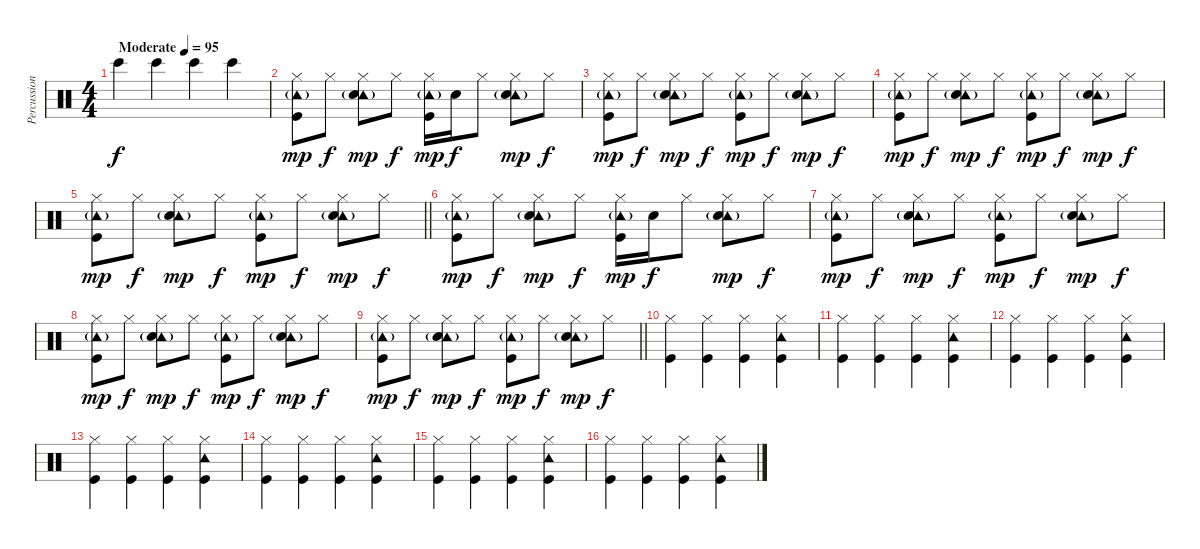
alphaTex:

\track ("Percussion" "Percussion") {instrument percussion}
\staff {score}
\articulation defaults
\ts (4 4)
\tempo (95 "Moderate")
\clef neutral
\ks c "Bongo High (hit)".4{dy f} "Bongo High (hit)".4 "Bongo High (hit)".4 "Bongo High (hit)".4
|
("Hi-Hat (closed)" "Tambourine (hit)"{g} "Kick (hit)").8{dy mp} "Hi-Hat (closed)".8{dy f} ("Hi-Hat (closed)" "Tambourine (hit)"{g} "Electric Snare (hit)").8{dy mp} "Hi-Hat (closed)".8{dy f} ("Hi-Hat (closed)" "Tambourine (hit)"{g} "Kick (hit)").16{dy mp} "Electric Snare (hit)".16{dy f} "Hi-Hat (closed)".8 ("Hi-Hat (closed)" "Tambourine (hit)"{g} "Electric Snare (hit)").8{dy mp} "Hi-Hat (closed)".8{dy f} |
("Hi-Hat (closed)" "Tambourine (hit)"{g} "Kick (hit)").8{dy mp} "Hi-Hat (closed)".8{dy f} ("Hi-Hat (closed)" "Tambourine (hit)"{g} "Electric Snare (hit)").8{dy mp} "Hi-Hat (closed)".8{dy f} ("Hi-Hat (closed)" "Tambourine (hit)"{g} "Kick (hit)").8{dy mp} "Hi-Hat (closed)".8{dy f} ("Hi-Hat (closed)" "Tambourine (hit)"{g} "Electric Snare (hit)").8{dy mp} "Hi-Hat (closed)".8{dy f} |
("Hi-Hat (closed)" "Tambourine (hit)"{g} "Kick (hit)").8{dy mp} "Hi-Hat (closed)".8{dy f} ("Hi-Hat (closed)" "Tambourine (hit)"{g} "Electric Snare (hit)").8{dy mp} "Hi-Hat (closed)".8{dy f} ("Hi-Hat (closed)" "Tambourine (hit)"{g} "Kick (hit)").8{dy mp} "Hi-Hat (closed)".8{dy f} ("Hi-Hat (closed)" "Tambourine (hit)"{g} "Electric Snare (hit)").8{dy mp} "Hi-Hat (closed)".8{dy f} |
\barLineRight lightlight
("Hi-Hat (closed)" "Tambourine (hit)"{g} "Kick (hit)").8{dy mp} "Hi-Hat (closed)".8{dy f} ("Hi-Hat (closed)" "Tambourine (hit)"{g} "Electric Snare (hit)").8{dy mp} "Hi-Hat (closed)".8{dy f} ("Hi-Hat (closed)" "Tambourine (hit)"{g} "Kick (hit)").8{dy mp} "Hi-Hat (closed)".8{dy f} ("Hi-Hat (closed)" "Tambourine (hit)"{g} "Electric Snare (hit)").8{dy mp} "Hi-Hat (closed)".8{dy f} |
("Hi-Hat (closed)" "Tambourine (hit)"{g} "Kick (hit)").8{dy mp} "Hi-Hat (closed)".8{dy f} ("Hi-Hat (closed)" "Tambourine (hit)"{g} "Electric Snare (hit)").8{dy mp} "Hi-Hat (closed)".8{dy f} ("Hi-Hat (closed)" "Tambourine (hit)"{g} "Kick (hit)").16{dy mp} "Electric Snare (hit)".16{dy f} "Hi-Hat (closed)".8 ("Hi-Hat (closed)" "Tambourine (hit)"{g} "Electric Snare (hit)").8{dy mp} "Hi-Hat (closed)".8{dy f} |
("Hi-Hat (closed)" "Tambourine (hit)"{g} "Kick (hit)").8{dy mp} "Hi-Hat (closed)".8{dy f} ("Hi-Hat (closed)" "Tambourine (hit)"{g} "Electric Snare (hit)").8{dy mp} "Hi-Hat (closed)".8{dy f} ("Hi-Hat (closed)" "Tambourine (hit)"{g} "Kick (hit)").8{dy mp} "Hi-Hat (closed)".8{dy f} ("Hi-Hat (closed)" "Tambourine (hit)"{g} "Electric Snare (hit)").8{dy mp} "Hi-Hat (closed)".8{dy f} |
("Hi-Hat (closed)" "Tambourine (hit)"{g} "Kick (hit)").8{dy mp} "Hi-Hat (closed)".8{dy f} ("Hi-Hat (closed)" "Tambourine (hit)"{g} "Electric Snare (hit)").8{dy mp} "Hi-Hat (closed)".8{dy f} ("Hi-Hat (closed)" "Tambourine (hit)"{g} "Kick (hit)").8{dy mp} "Hi-Hat (closed)".8{dy f} ("Hi-Hat (closed)" "Tambourine (hit)"{g} "Electric Snare (hit)").8{dy mp} "Hi-Hat (closed)".8{dy f} |
\barLineRight lightlight
("Hi-Hat (closed)" "Tambourine (hit)"{g} "Kick (hit)").8{dy mp} "Hi-Hat (closed)".8{dy f} ("Hi-Hat (closed)" "Tambourine (hit)"{g} "Electric Snare (hit)").8{dy mp} "Hi-Hat (closed)".8{dy f} ("Hi-Hat (closed)" "Tambourine (hit)"{g} "Kick (hit)").8{dy mp} "Hi-Hat (closed)".8{dy f} ("Hi-Hat (closed)" "Tambourine (hit)"{g} "Electric Snare (hit)").8{dy mp} "Hi-Hat (closed)".8{dy f} |
("Hi-Hat (closed)" "Kick (hit)").4 ("Hi-Hat (closed)" "Kick (hit)").4 ("Hi-Hat (closed)" "Kick (hit)").4 ("Hi-Hat (closed)" "Tambourine (hit)" "Kick (hit)").4 |
("Hi-Hat (closed)" "Kick (hit)").4 ("Hi-Hat (closed)" "Kick (hit)").4 ("Hi-Hat (closed)" "Kick (hit)").4 ("Hi-Hat (closed)" "Tambourine (hit)" "Kick (hit)").4 |
("Hi-Hat (closed)" "Kick (hit)").4 ("Hi-Hat (closed)" "Kick (hit)").4 ("Hi-Hat (closed)" "Kick (hit)").4 ("Hi-Hat (closed)" "Tambourine (hit)" "Kick (hit)").4 |
("Hi-Hat (closed)" "Kick (hit)").4 ("Hi-Hat (closed)" "Kick (hit)").4 ("Hi-Hat (closed)" "Kick (hit)").4 ("Hi-Hat (closed)" "Tambourine (hit)" "Kick (hit)").4 |
("Hi-Hat (closed)" "Kick (hit)").4 ("Hi-Hat (closed)" "Kick (hit)").4 ("Hi-Hat (closed)" "Kick (hit)").4 ("Hi-Hat (closed)" "Tambourine (hit)" "Kick (hit)").4 |
("Hi-Hat (closed)" "Kick (hit)").4 ("Hi-Hat (closed)" "Kick (hit)").4 ("Hi-Hat (closed)" "Kick (hit)").4 ("Hi-Hat (closed)" "Tambourine (hit)" "Kick (hit)").4 |
("Hi-Hat (closed)" "Kick (hit)").4 ("Hi-Hat (closed)" "Kick (hit)").4 ("Hi-Hat (closed)" "Kick (hit)").4 ("Hi-Hat (closed)" "Tambourine (hit)" "Kick (hit)").4
